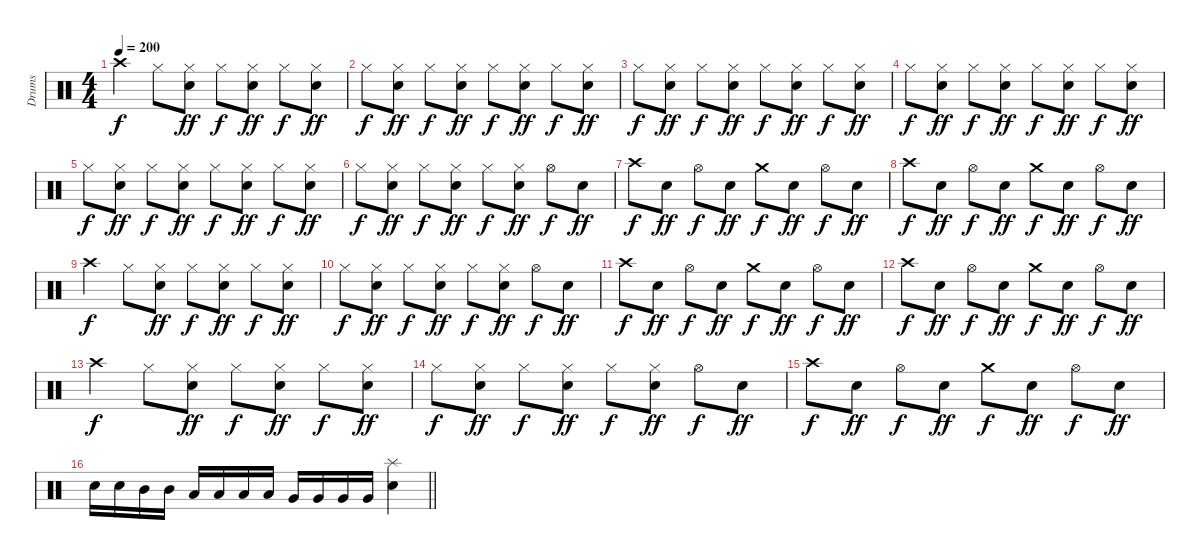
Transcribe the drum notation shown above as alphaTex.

\track ("Drums" "Drums") {instrument percussion}
\staff {score}
\articulation defaults
\ts (4 4)
\tempo 200
\clef neutral
\ks c "Crash high (hit)".4{dy f} "Hi-Hat (closed)".8
("Hi-Hat (closed)" "Snare (hit) 2").8{dy ff} "Hi-Hat (closed)".8{dy f} ("Hi-Hat (closed)" "Snare (hit) 2").8{dy ff} "Hi-Hat (closed)".8{dy f} ("Hi-Hat (closed)" "Snare (hit) 2").8{dy ff} |
"Hi-Hat (closed)".8{dy f} ("Hi-Hat (closed)" "Snare (hit) 2").8{dy ff} "Hi-Hat (closed)".8{dy f} ("Hi-Hat (closed)" "Snare (hit) 2").8{dy ff} "Hi-Hat (closed)".8{dy f} ("Hi-Hat (closed)" "Snare (hit) 2").8{dy ff} "Hi-Hat (closed)".8{dy f} ("Hi-Hat (closed)" "Snare (hit) 2").8{dy ff} |
"Hi-Hat (closed)".8{dy f} ("Hi-Hat (closed)" "Snare (hit) 2").8{dy ff} "Hi-Hat (closed)".8{dy f} ("Hi-Hat (closed)" "Snare (hit) 2").8{dy ff} "Hi-Hat (closed)".8{dy f} ("Hi-Hat (closed)" "Snare (hit) 2").8{dy ff} "Hi-Hat (closed)".8{dy f} ("Hi-Hat (closed)" "Snare (hit) 2").8{dy ff} |
"Hi-Hat (closed)".8{dy f} ("Hi-Hat (closed)" "Snare (hit) 2").8{dy ff} "Hi-Hat (closed)".8{dy f} ("Hi-Hat (closed)" "Snare (hit) 2").8{dy ff} "Hi-Hat (closed)".8{dy f} ("Hi-Hat (closed)" "Snare (hit) 2").8{dy ff} "Hi-Hat (closed)".8{dy f} ("Hi-Hat (closed)" "Snare (hit) 2").8{dy ff} |
"Hi-Hat (closed)".8{dy f} ("Hi-Hat (closed)" "Snare (hit) 2").8{dy ff} "Hi-Hat (closed)".8{dy f} ("Hi-Hat (closed)" "Snare (hit) 2").8{dy ff} "Hi-Hat (closed)".8{dy f} ("Hi-Hat (closed)" "Snare (hit) 2").8{dy ff} "Hi-Hat (closed)".8{dy f} ("Hi-Hat (closed)" "Snare (hit) 2").8{dy ff} |
"Hi-Hat (closed)".8{dy f} ("Hi-Hat (closed)" "Snare (hit) 2").8{dy ff} "Hi-Hat (closed)".8{dy f} ("Hi-Hat (closed)" "Snare (hit) 2").8{dy ff} "Hi-Hat (closed)".8{dy f} ("Hi-Hat (closed)" "Snare (hit) 2").8{dy ff} "Hi-Hat (open)".8{dy f} "Snare (hit) 2".8{dy ff} |
"Crash high (hit)".8{dy f} "Snare (hit) 2".8{dy ff} "Hi-Hat (open)".8{dy f} "Snare (hit) 2".8{dy ff} "Crash medium (hit)".8{dy f} "Snare (hit) 2".8{dy ff} "Hi-Hat (open)".8{dy f} "Snare (hit) 2".8{dy ff} |
"Crash high (hit)".8{dy f} "Snare (hit) 2".8{dy ff} "Hi-Hat (open)".8{dy f} "Snare (hit) 2".8{dy ff} "Crash medium (hit)".8{dy f} "Snare (hit) 2".8{dy ff} "Hi-Hat (open)".8{dy f} "Snare (hit) 2".8{dy ff} |
"Crash high (hit)".4{dy f} "Hi-Hat (closed)".8 ("Hi-Hat (closed)" "Snare (hit) 2").8{dy ff} "Hi-Hat (closed)".8{dy f} ("Hi-Hat (closed)" "Snare (hit) 2").8{dy ff} "Hi-Hat (closed)".8{dy f} ("Hi-Hat (closed)" "Snare (hit) 2").8{dy ff} |
"Hi-Hat (closed)".8{dy f} ("Hi-Hat (closed)" "Snare (hit) 2").8{dy ff} "Hi-Hat (closed)".8{dy f} ("Hi-Hat (closed)" "Snare (hit) 2").8{dy ff} "Hi-Hat (closed)".8{dy f} ("Hi-Hat (closed)" "Snare (hit) 2").8{dy ff} "Hi-Hat (open)".8{dy f} "Snare (hit) 2".8{dy ff} |
"Crash high (hit)".8{dy f} "Snare (hit) 2".8{dy ff} "Hi-Hat (open)".8{dy f} "Snare (hit) 2".8{dy ff} "Crash medium (hit)".8{dy f} "Snare (hit) 2".8{dy ff} "Hi-Hat (open)".8{dy f} "Snare (hit) 2".8{dy ff} |
"Crash high (hit)".8{dy f} "Snare (hit) 2".8{dy ff} "Hi-Hat (open)".8{dy f} "Snare (hit) 2".8{dy ff} "Crash medium (hit)".8{dy f} "Snare (hit) 2".8{dy ff} "Hi-Hat (open)".8{dy f} "Snare (hit) 2".8{dy ff} |
"Crash high (hit)".4{dy f} "Hi-Hat (closed)".8 ("Hi-Hat (closed)" "Snare (hit) 2").8{dy ff} "Hi-Hat (closed)".8{dy f} ("Hi-Hat (closed)" "Snare (hit) 2").8{dy ff} "Hi-Hat (closed)".8{dy f} ("Hi-Hat (closed)" "Snare (hit) 2").8{dy ff} |
"Hi-Hat (closed)".8{dy f} ("Hi-Hat (closed)" "Snare (hit) 2").8{dy ff} "Hi-Hat (closed)".8{dy f} ("Hi-Hat (closed)" "Snare (hit) 2").8{dy ff} "Hi-Hat (closed)".8{dy f} ("Hi-Hat (closed)" "Snare (hit) 2").8{dy ff} "Hi-Hat (open)".8{dy f} "Snare (hit) 2".8{dy ff} |
"Crash high (hit)".8{dy f} "Snare (hit) 2".8{dy ff} "Hi-Hat (open)".8{dy f} "Snare (hit) 2".8{dy ff} "Crash medium (hit)".8{dy f} "Snare (hit) 2".8{dy ff} "Hi-Hat (open)".8{dy f} "Snare (hit) 2".8{dy ff} |
\barLineRight lightlight "Snare (hit) 2".16 "Snare (hit) 2".16 "Mid Tom (hit)".16 "Mid Tom (hit)".16 "Low Tom (hit)".16 "Low Tom (hit)".16 "Low Tom (hit)".16 "Low Tom (hit)".16 "Very Low Tom (hit)".16 "Very Low Tom (hit)".16 "Very Low Tom (hit)".16 "Very Low Tom (hit)".16
("Splash (hit)" "Snare (hit) 2").4
